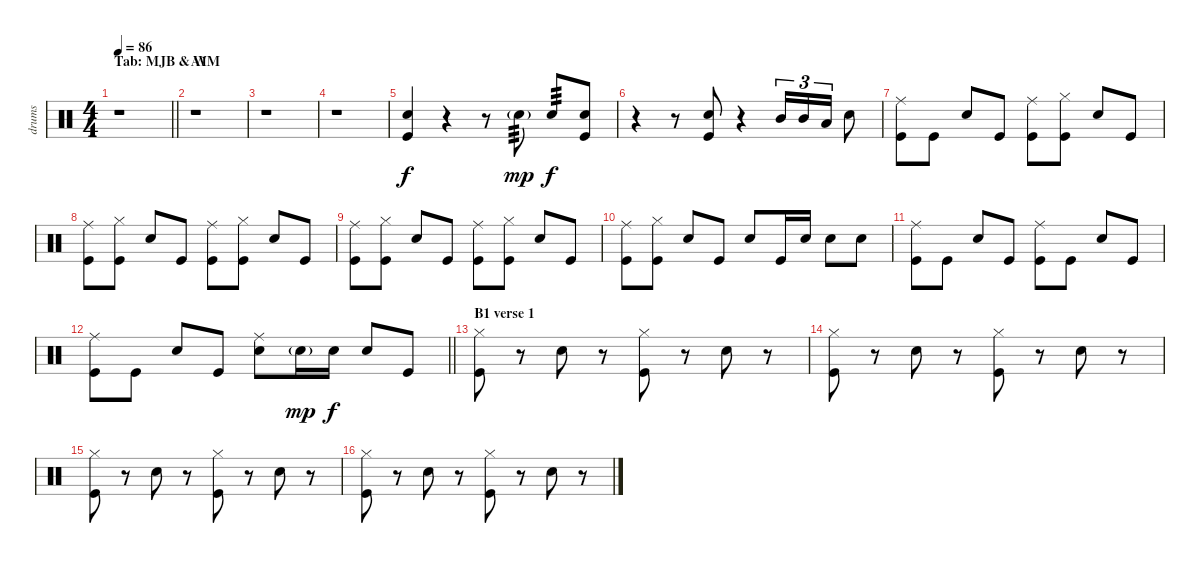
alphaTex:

\track ("drums" "drums") {instrument percussion}
\staff {score}
\articulation defaults
\ts (4 4)
\section ("" "Tab: MJB & WM")
\tempo 86
\clef neutral
\barLineRight lightlight
\ks c
r.1{dy f} |
\section ("" "A1")
r.1 |
r.1 |
r.1 |
("Snare (hit) 2" "Kick (hit)").4 r.4 r.8 "Snare (hit) 2"{g}.8{tp 3 dy mp} "Snare (hit) 2".8{tp 3 dy f} ("Snare (hit) 2" "Kick (hit)").8 |
r.4 r.8 ("Snare (hit) 2" "Kick (hit)").8 r.4 "Mid Tom (hit)".16{tu (3 2)} "Mid Tom (hit)".16{tu (3 2)} "Low Tom (hit)".16{tu (3 2)} "Snare (hit) 2".8 |
("Ride (middle)" "Kick (hit)").8 "Kick (hit)".8 "Snare (hit) 2".8 "Kick (hit)".8 ("Ride (middle)" "Kick (hit)").8 ("Hi-Hat (closed)" "Kick (hit)").8 "Snare (hit) 2".8 "Kick (hit)".8 |
("Ride (middle)" "Kick (hit)").8 ("Hi-Hat (closed)" "Kick (hit)").8 "Snare (hit) 2".8 "Kick (hit)".8 ("Ride (middle)" "Kick (hit)").8 ("Hi-Hat (closed)" "Kick (hit)").8 "Snare (hit) 2".8 "Kick (hit)".8 |
("Ride (middle)" "Kick (hit)").8 ("Hi-Hat (closed)" "Kick (hit)").8 "Snare (hit) 2".8 "Kick (hit)".8 ("Ride (middle)" "Kick (hit)").8 ("Hi-Hat (closed)" "Kick (hit)").8 "Snare (hit) 2".8 "Kick (hit)".8 |
("Ride (middle)" "Kick (hit)").8 ("Hi-Hat (closed)" "Kick (hit)").8 "Snare (hit) 2".8 "Kick (hit)".8 "Snare (hit) 2".8 "Kick (hit)".16 "Snare (hit) 2".16 "Snare (hit) 2".8 "Snare (hit) 2".8 |
("Ride (middle)" "Kick (hit)").8 "Kick (hit)".8 "Snare (hit) 2".8 "Kick (hit)".8 ("Ride (middle)" "Kick (hit)").8 "Kick (hit)".8 "Snare (hit) 2".8 "Kick (hit)".8 |
\barLineRight lightlight
("Ride (middle)" "Kick (hit)").8 "Kick (hit)".8 "Snare (hit) 2".8 "Kick (hit)".8 ("Ride (middle)" "Snare (hit) 2").8 "Snare (hit) 2"{g}.16{dy mp} "Snare (hit) 2".16{dy f} "Snare (hit) 2".8 "Kick (hit)".8 |
\section ("" "B1 verse 1")
("Hi-Hat (closed)" "Kick (hit)").8 r.8 "Snare (hit) 2".8 r.8 ("Hi-Hat (closed)" "Kick (hit)").8 r.8 "Snare (hit) 2".8 r.8 |
("Hi-Hat (closed)" "Kick (hit)").8 r.8 "Snare (hit) 2".8 r.8 ("Hi-Hat (closed)" "Kick (hit)").8 r.8 "Snare (hit) 2".8 r.8 |
("Hi-Hat (closed)" "Kick (hit)").8 r.8 "Snare (hit) 2".8 r.8 ("Hi-Hat (closed)" "Kick (hit)").8 r.8 "Snare (hit) 2".8 r.8 |
("Hi-Hat (closed)" "Kick (hit)").8 r.8 "Snare (hit) 2".8 r.8 ("Hi-Hat (closed)" "Kick (hit)").8 r.8 "Snare (hit) 2".8 r.8
